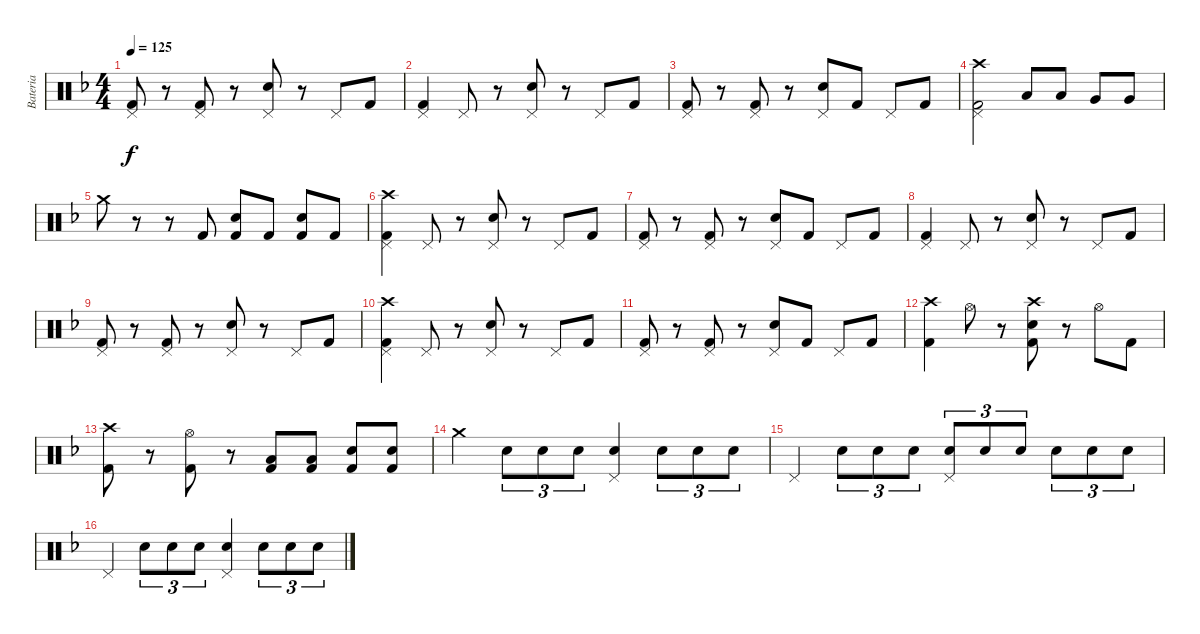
\track ("Bateria" "Bateria") {instrument percussion}
\staff {score}
\articulation defaults
\ts (4 4)
\tempo 125
\clef neutral
\ks f
("Pedal Hi-Hat (hit)" "Kick (hit) 2").8{dy f} r.8 ("Pedal Hi-Hat (hit)" "Kick (hit) 2").8 r.8 ("Pedal Hi-Hat (hit)" "Electric Snare (hit)").8 r.8 "Pedal Hi-Hat (hit)".8 "Kick (hit) 2".8 |
("Pedal Hi-Hat (hit)" "Kick (hit) 2").4 "Pedal Hi-Hat (hit)".8 r.8 ("Pedal Hi-Hat (hit)" "Electric Snare (hit)").8 r.8 "Pedal Hi-Hat (hit)".8 "Kick (hit) 2".8 |
("Pedal Hi-Hat (hit)" "Kick (hit) 2").8 r.8 ("Pedal Hi-Hat (hit)" "Kick (hit) 2").8 r.8 ("Pedal Hi-Hat (hit)" "Electric Snare (hit)").8 "Kick (hit) 2".8 "Pedal Hi-Hat (hit)".8 "Kick (hit) 2".8 |
("Pedal Hi-Hat (hit)" "Crash high (hit)" "Kick (hit) 2").2 "Low Tom (hit)".8 "Low Tom (hit)".8 "Very Low Tom (hit)".8 "Very Low Tom (hit)".8 |
"Crash medium (hit)".8 r.8 r.8 "Kick (hit) 2".8 ("Electric Snare (hit)" "Kick (hit) 2").8 "Kick (hit) 2".8 ("Electric Snare (hit)" "Kick (hit) 2").8 "Kick (hit) 2".8 |
("Pedal Hi-Hat (hit)" "Crash high (hit)" "Kick (hit) 2").4 "Pedal Hi-Hat (hit)".8 r.8 ("Pedal Hi-Hat (hit)" "Electric Snare (hit)").8 r.8 "Pedal Hi-Hat (hit)".8 "Kick (hit) 2".8 |
("Pedal Hi-Hat (hit)" "Kick (hit) 2").8 r.8 ("Pedal Hi-Hat (hit)" "Kick (hit) 2").8 r.8 ("Pedal Hi-Hat (hit)" "Electric Snare (hit)").8 "Kick (hit) 2".8 "Pedal Hi-Hat (hit)".8 "Kick (hit) 2".8 |
("Pedal Hi-Hat (hit)" "Kick (hit) 2").4 "Pedal Hi-Hat (hit)".8 r.8 ("Pedal Hi-Hat (hit)" "Electric Snare (hit)").8 r.8 "Pedal Hi-Hat (hit)".8 "Kick (hit) 2".8 |
("Pedal Hi-Hat (hit)" "Kick (hit) 2").8 r.8 ("Pedal Hi-Hat (hit)" "Kick (hit) 2").8 r.8 ("Pedal Hi-Hat (hit)" "Electric Snare (hit)").8 r.8 "Pedal Hi-Hat (hit)".8 "Kick (hit) 2".8 |
("Pedal Hi-Hat (hit)" "Crash high (hit)" "Kick (hit) 2").4 "Pedal Hi-Hat (hit)".8 r.8 ("Pedal Hi-Hat (hit)" "Electric Snare (hit)").8 r.8 "Pedal Hi-Hat (hit)".8 "Kick (hit) 2".8 |
("Pedal Hi-Hat (hit)" "Kick (hit) 2").8 r.8 ("Pedal Hi-Hat (hit)" "Kick (hit) 2").8 r.8 ("Pedal Hi-Hat (hit)" "Electric Snare (hit)").8 "Kick (hit) 2".8 "Pedal Hi-Hat (hit)".8 "Kick (hit) 2".8 |
("Crash high (hit)" "Kick (hit) 2").4 "Hi-Hat (open)".8 r.8 ("Crash high (hit)" "Electric Snare (hit)" "Kick (hit) 2").8 r.8 "Hi-Hat (open)".8 "Kick (hit) 2".8 |
("Crash high (hit)" "Kick (hit) 2").8 r.8 ("Hi-Hat (open)" "Kick (hit) 2").8 r.8 ("Low Tom (hit)" "Kick (hit) 2").8 ("Low Tom (hit)" "Kick (hit) 2").8 ("Snare (hit) 2" "Kick (hit) 2").8 ("Snare (hit) 2" "Kick (hit) 2").8 |
"Crash medium (hit)".4 "Electric Snare (hit)".8{tu (3 2) volume 4} "Electric Snare (hit)".8{tu (3 2)} "Electric Snare (hit)".8{tu (3 2)} ("Pedal Hi-Hat (hit)" "Electric Snare (hit)").4 "Electric Snare (hit)".8{tu (3 2)} "Electric Snare (hit)".8{tu (3 2)} "Electric Snare (hit)".8{tu (3 2)} |
"Pedal Hi-Hat (hit)".4 "Electric Snare (hit)".8{tu (3 2)} "Electric Snare (hit)".8{tu (3 2)} "Electric Snare (hit)".8{tu (3 2)} ("Pedal Hi-Hat (hit)" "Electric Snare (hit)").8{tu (3 2)} "Electric Snare (hit)".8{tu (3 2)} "Electric Snare (hit)".8{tu (3 2)} "Electric Snare (hit)".8{tu (3 2)} "Electric Snare (hit)".8{tu (3 2)} "Electric Snare (hit)".8{tu (3 2)} |
"Pedal Hi-Hat (hit)".4 "Electric Snare (hit)".8{tu (3 2)} "Electric Snare (hit)".8{tu (3 2)} "Electric Snare (hit)".8{tu (3 2)} ("Pedal Hi-Hat (hit)" "Electric Snare (hit)").4 "Electric Snare (hit)".8{tu (3 2)} "Electric Snare (hit)".8{tu (3 2)} "Electric Snare (hit)".8{tu (3 2)}
